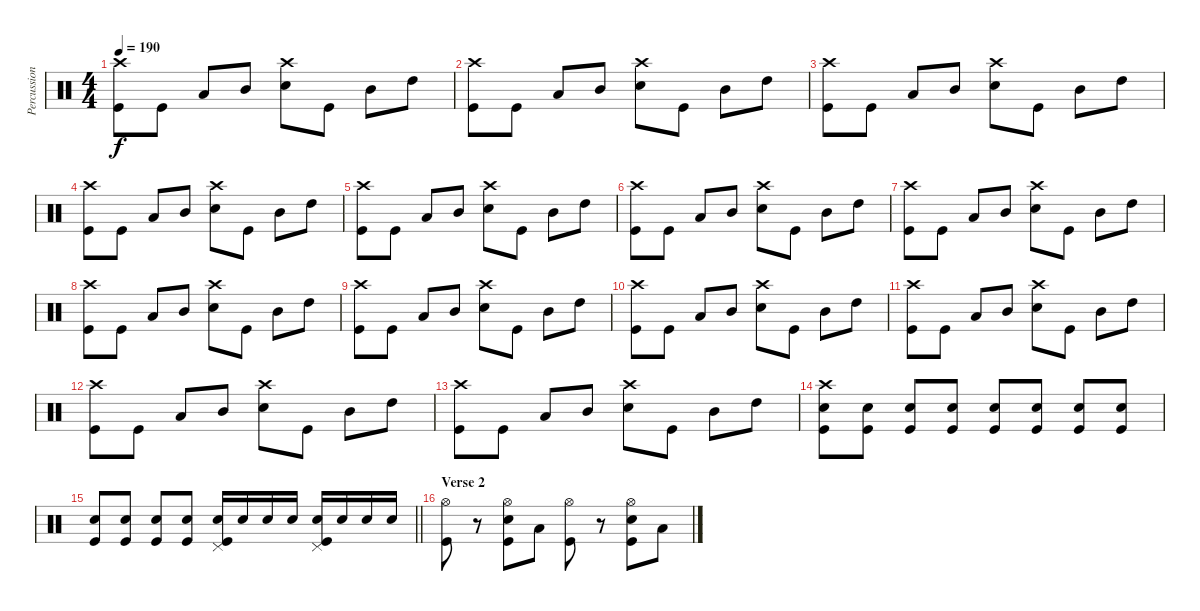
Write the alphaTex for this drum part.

\track ("Percussion" "Percussion") {instrument percussion}
\staff {score}
\articulation defaults
\ts (4 4)
\tempo 190
\clef neutral
\ks c
("Crash high (hit)" "Kick (hit)").8{dy f} "Kick (hit)".8 "Low Tom (hit)".8 "Mid Tom (hit)".8 ("Crash high (hit)" "Snare (hit) 2").8 "Kick (hit)".8 "Mid Tom (hit)".8 "High Tom (hit)".8 |
("Crash high (hit)" "Kick (hit)").8 "Kick (hit)".8 "Low Tom (hit)".8 "Mid Tom (hit)".8 ("Crash high (hit)" "Snare (hit) 2").8 "Kick (hit)".8 "Mid Tom (hit)".8 "High Tom (hit)".8 |
("Crash high (hit)" "Kick (hit)").8 "Kick (hit)".8 "Low Tom (hit)".8 "Mid Tom (hit)".8 ("Crash high (hit)" "Snare (hit) 2").8 "Kick (hit)".8 "Mid Tom (hit)".8 "High Tom (hit)".8 |
("Crash high (hit)" "Kick (hit)").8 "Kick (hit)".8 "Low Tom (hit)".8 "Mid Tom (hit)".8 ("Crash high (hit)" "Snare (hit) 2").8 "Kick (hit)".8 "Mid Tom (hit)".8 "High Tom (hit)".8 |
("Crash high (hit)" "Kick (hit)").8 "Kick (hit)".8 "Low Tom (hit)".8 "Mid Tom (hit)".8 ("Crash high (hit)" "Snare (hit) 2").8 "Kick (hit)".8 "Mid Tom (hit)".8 "High Tom (hit)".8 |
("Crash high (hit)" "Kick (hit)").8 "Kick (hit)".8 "Low Tom (hit)".8 "Mid Tom (hit)".8 ("Crash high (hit)" "Snare (hit) 2").8 "Kick (hit)".8 "Mid Tom (hit)".8 "High Tom (hit)".8 |
("Crash high (hit)" "Kick (hit)").8 "Kick (hit)".8 "Low Tom (hit)".8 "Mid Tom (hit)".8 ("Crash high (hit)" "Snare (hit) 2").8 "Kick (hit)".8 "Mid Tom (hit)".8 "High Tom (hit)".8 |
("Crash high (hit)" "Kick (hit)").8 "Kick (hit)".8 "Low Tom (hit)".8 "Mid Tom (hit)".8 ("Crash high (hit)" "Snare (hit) 2").8 "Kick (hit)".8 "Mid Tom (hit)".8 "High Tom (hit)".8 |
("Crash high (hit)" "Kick (hit)").8 "Kick (hit)".8 "Low Tom (hit)".8 "Mid Tom (hit)".8 ("Crash high (hit)" "Snare (hit) 2").8 "Kick (hit)".8 "Mid Tom (hit)".8 "High Tom (hit)".8 |
("Crash high (hit)" "Kick (hit)").8 "Kick (hit)".8 "Low Tom (hit)".8 "Mid Tom (hit)".8 ("Crash high (hit)" "Snare (hit) 2").8 "Kick (hit)".8 "Mid Tom (hit)".8 "High Tom (hit)".8 |
("Crash high (hit)" "Kick (hit)").8 "Kick (hit)".8 "Low Tom (hit)".8 "Mid Tom (hit)".8 ("Crash high (hit)" "Snare (hit) 2").8 "Kick (hit)".8 "Mid Tom (hit)".8 "High Tom (hit)".8 |
("Crash high (hit)" "Kick (hit)").8 "Kick (hit)".8 "Low Tom (hit)".8 "Mid Tom (hit)".8 ("Crash high (hit)" "Snare (hit) 2").8 "Kick (hit)".8 "Mid Tom (hit)".8 "High Tom (hit)".8 |
("Crash high (hit)" "Kick (hit)").8 "Kick (hit)".8 "Low Tom (hit)".8 "Mid Tom (hit)".8 ("Crash high (hit)" "Snare (hit) 2").8 "Kick (hit)".8 "Mid Tom (hit)".8 "High Tom (hit)".8 |
("Crash high (hit)" "Snare (hit) 2" "Kick (hit)").8 ("Snare (hit) 2" "Kick (hit)").8 ("Snare (hit) 2" "Kick (hit)").8 ("Snare (hit) 2" "Kick (hit)").8 ("Snare (hit) 2" "Kick (hit)").8 ("Snare (hit) 2" "Kick (hit)").8 ("Snare (hit) 2" "Kick (hit)").8 ("Snare (hit) 2" "Kick (hit)").8 |
\barLineRight lightlight
("Snare (hit) 2" "Kick (hit)").8 ("Snare (hit) 2" "Kick (hit)").8 ("Snare (hit) 2" "Kick (hit)").8 ("Snare (hit) 2" "Kick (hit)").8 ("Pedal Hi-Hat (hit)" "Snare (hit) 2" "Kick (hit)").16 "Snare (hit) 2".16 "Snare (hit) 2".16 "Snare (hit) 2".16 ("Pedal Hi-Hat (hit)" "Snare (hit) 2" "Kick (hit)").16 "Snare (hit) 2".16 "Snare (hit) 2".16 "Snare (hit) 2".16 |
\section ("" "Verse 2")
("Hi-Hat (open)" "Kick (hit)").8 r.8 ("Snare (hit) 2" "Hi-Hat (open)" "Kick (hit)").8 "Low Tom (hit)".8 ("Hi-Hat (open)" "Kick (hit)").8 r.8 ("Snare (hit) 2" "Hi-Hat (open)" "Kick (hit)").8 "Low Tom (hit)".8
